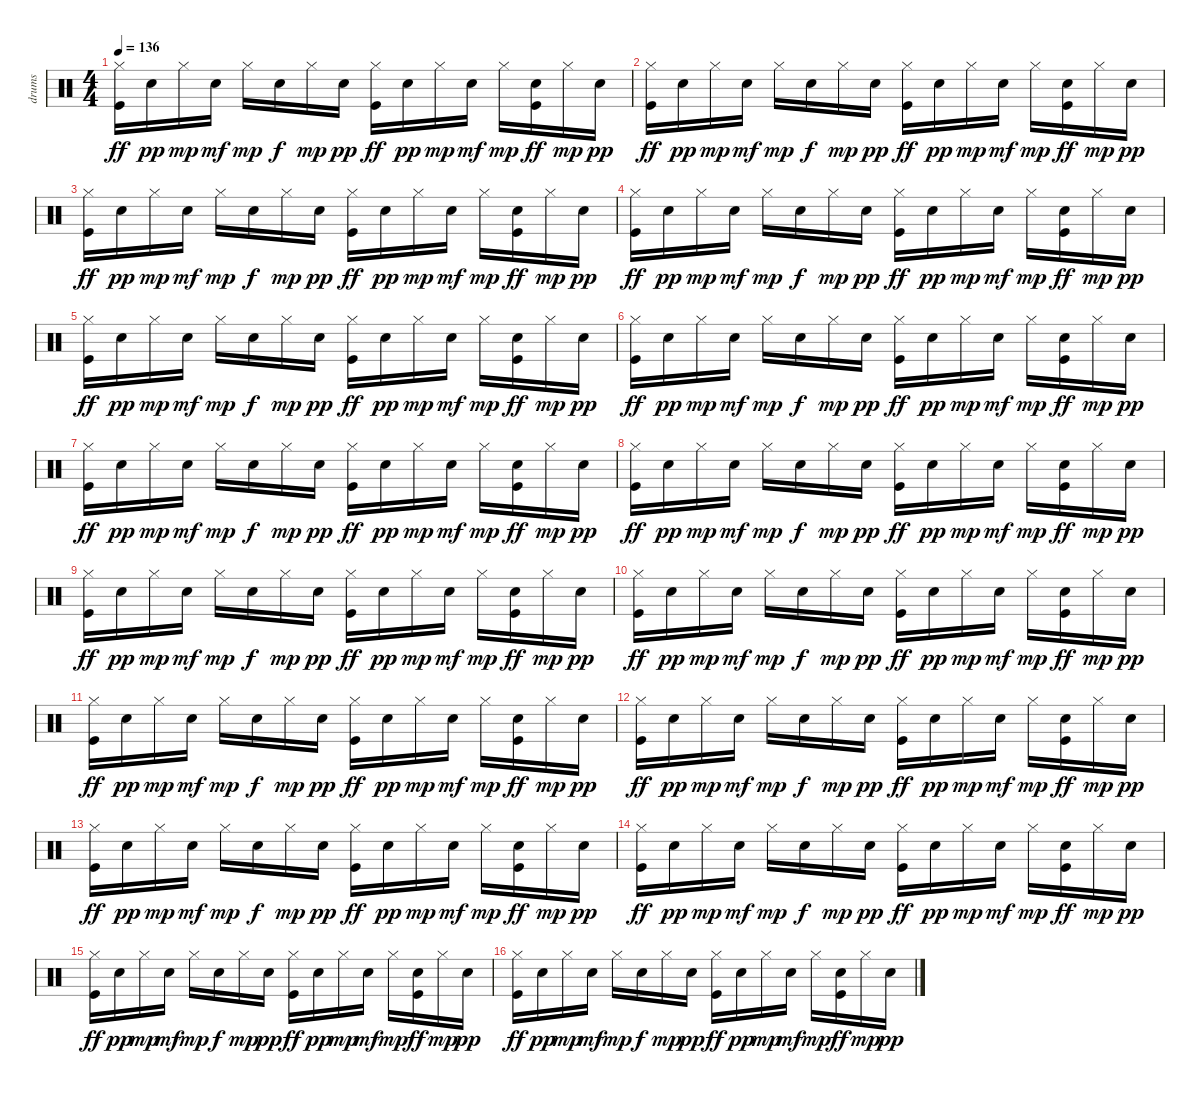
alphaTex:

\track ("drums" "drums") {instrument percussion}
\staff {score}
\articulation defaults
\ts (4 4)
\tempo 136
\clef neutral
\ks c
("Hi-Hat (closed)" "Kick (hit)").16{dy ff} "Snare (hit) 2".16{dy pp} "Hi-Hat (closed)".16{dy mp} "Snare (hit) 2".16{dy mf} "Hi-Hat (closed)".16{dy mp} "Snare (hit) 2".16{dy f} "Hi-Hat (closed)".16{dy mp} "Snare (hit) 2".16{dy pp} ("Hi-Hat (closed)" "Kick (hit)").16{dy ff} "Snare (hit) 2".16{dy pp} "Hi-Hat (closed)".16{dy mp} "Snare (hit) 2".16{dy mf} "Hi-Hat (closed)".16{dy mp} ("Snare (hit) 2" "Kick (hit)").16{dy ff} "Hi-Hat (closed)".16{dy mp} "Snare (hit) 2".16{dy pp} |
("Hi-Hat (closed)" "Kick (hit)").16{dy ff} "Snare (hit) 2".16{dy pp} "Hi-Hat (closed)".16{dy mp} "Snare (hit) 2".16{dy mf} "Hi-Hat (closed)".16{dy mp} "Snare (hit) 2".16{dy f} "Hi-Hat (closed)".16{dy mp} "Snare (hit) 2".16{dy pp} ("Hi-Hat (closed)" "Kick (hit)").16{dy ff} "Snare (hit) 2".16{dy pp} "Hi-Hat (closed)".16{dy mp} "Snare (hit) 2".16{dy mf} "Hi-Hat (closed)".16{dy mp} ("Snare (hit) 2" "Kick (hit)").16{dy ff} "Hi-Hat (closed)".16{dy mp} "Snare (hit) 2".16{dy pp} |
("Hi-Hat (closed)" "Kick (hit)").16{dy ff} "Snare (hit) 2".16{dy pp} "Hi-Hat (closed)".16{dy mp} "Snare (hit) 2".16{dy mf} "Hi-Hat (closed)".16{dy mp} "Snare (hit) 2".16{dy f} "Hi-Hat (closed)".16{dy mp} "Snare (hit) 2".16{dy pp} ("Hi-Hat (closed)" "Kick (hit)").16{dy ff} "Snare (hit) 2".16{dy pp} "Hi-Hat (closed)".16{dy mp} "Snare (hit) 2".16{dy mf} "Hi-Hat (closed)".16{dy mp} ("Snare (hit) 2" "Kick (hit)").16{dy ff} "Hi-Hat (closed)".16{dy mp} "Snare (hit) 2".16{dy pp} |
("Hi-Hat (closed)" "Kick (hit)").16{dy ff} "Snare (hit) 2".16{dy pp} "Hi-Hat (closed)".16{dy mp} "Snare (hit) 2".16{dy mf} "Hi-Hat (closed)".16{dy mp} "Snare (hit) 2".16{dy f} "Hi-Hat (closed)".16{dy mp} "Snare (hit) 2".16{dy pp} ("Hi-Hat (closed)" "Kick (hit)").16{dy ff} "Snare (hit) 2".16{dy pp} "Hi-Hat (closed)".16{dy mp} "Snare (hit) 2".16{dy mf} "Hi-Hat (closed)".16{dy mp} ("Snare (hit) 2" "Kick (hit)").16{dy ff} "Hi-Hat (closed)".16{dy mp} "Snare (hit) 2".16{dy pp} |
("Hi-Hat (closed)" "Kick (hit)").16{dy ff} "Snare (hit) 2".16{dy pp} "Hi-Hat (closed)".16{dy mp} "Snare (hit) 2".16{dy mf} "Hi-Hat (closed)".16{dy mp} "Snare (hit) 2".16{dy f} "Hi-Hat (closed)".16{dy mp} "Snare (hit) 2".16{dy pp} ("Hi-Hat (closed)" "Kick (hit)").16{dy ff} "Snare (hit) 2".16{dy pp} "Hi-Hat (closed)".16{dy mp} "Snare (hit) 2".16{dy mf} "Hi-Hat (closed)".16{dy mp} ("Snare (hit) 2" "Kick (hit)").16{dy ff} "Hi-Hat (closed)".16{dy mp} "Snare (hit) 2".16{dy pp} |
("Hi-Hat (closed)" "Kick (hit)").16{dy ff} "Snare (hit) 2".16{dy pp} "Hi-Hat (closed)".16{dy mp} "Snare (hit) 2".16{dy mf} "Hi-Hat (closed)".16{dy mp} "Snare (hit) 2".16{dy f} "Hi-Hat (closed)".16{dy mp} "Snare (hit) 2".16{dy pp} ("Hi-Hat (closed)" "Kick (hit)").16{dy ff} "Snare (hit) 2".16{dy pp} "Hi-Hat (closed)".16{dy mp} "Snare (hit) 2".16{dy mf} "Hi-Hat (closed)".16{dy mp} ("Snare (hit) 2" "Kick (hit)").16{dy ff} "Hi-Hat (closed)".16{dy mp} "Snare (hit) 2".16{dy pp} |
("Hi-Hat (closed)" "Kick (hit)").16{dy ff} "Snare (hit) 2".16{dy pp} "Hi-Hat (closed)".16{dy mp} "Snare (hit) 2".16{dy mf} "Hi-Hat (closed)".16{dy mp} "Snare (hit) 2".16{dy f} "Hi-Hat (closed)".16{dy mp} "Snare (hit) 2".16{dy pp} ("Hi-Hat (closed)" "Kick (hit)").16{dy ff} "Snare (hit) 2".16{dy pp} "Hi-Hat (closed)".16{dy mp} "Snare (hit) 2".16{dy mf} "Hi-Hat (closed)".16{dy mp} ("Snare (hit) 2" "Kick (hit)").16{dy ff} "Hi-Hat (closed)".16{dy mp} "Snare (hit) 2".16{dy pp} |
("Hi-Hat (closed)" "Kick (hit)").16{dy ff} "Snare (hit) 2".16{dy pp} "Hi-Hat (closed)".16{dy mp} "Snare (hit) 2".16{dy mf} "Hi-Hat (closed)".16{dy mp} "Snare (hit) 2".16{dy f} "Hi-Hat (closed)".16{dy mp} "Snare (hit) 2".16{dy pp} ("Hi-Hat (closed)" "Kick (hit)").16{dy ff} "Snare (hit) 2".16{dy pp} "Hi-Hat (closed)".16{dy mp} "Snare (hit) 2".16{dy mf} "Hi-Hat (closed)".16{dy mp} ("Snare (hit) 2" "Kick (hit)").16{dy ff} "Hi-Hat (closed)".16{dy mp} "Snare (hit) 2".16{dy pp} |
("Hi-Hat (closed)" "Kick (hit)").16{dy ff} "Snare (hit) 2".16{dy pp} "Hi-Hat (closed)".16{dy mp} "Snare (hit) 2".16{dy mf} "Hi-Hat (closed)".16{dy mp} "Snare (hit) 2".16{dy f} "Hi-Hat (closed)".16{dy mp} "Snare (hit) 2".16{dy pp} ("Hi-Hat (closed)" "Kick (hit)").16{dy ff} "Snare (hit) 2".16{dy pp} "Hi-Hat (closed)".16{dy mp} "Snare (hit) 2".16{dy mf} "Hi-Hat (closed)".16{dy mp} ("Snare (hit) 2" "Kick (hit)").16{dy ff} "Hi-Hat (closed)".16{dy mp} "Snare (hit) 2".16{dy pp} |
("Hi-Hat (closed)" "Kick (hit)").16{dy ff} "Snare (hit) 2".16{dy pp} "Hi-Hat (closed)".16{dy mp} "Snare (hit) 2".16{dy mf} "Hi-Hat (closed)".16{dy mp} "Snare (hit) 2".16{dy f} "Hi-Hat (closed)".16{dy mp} "Snare (hit) 2".16{dy pp} ("Hi-Hat (closed)" "Kick (hit)").16{dy ff} "Snare (hit) 2".16{dy pp} "Hi-Hat (closed)".16{dy mp} "Snare (hit) 2".16{dy mf} "Hi-Hat (closed)".16{dy mp} ("Snare (hit) 2" "Kick (hit)").16{dy ff} "Hi-Hat (closed)".16{dy mp} "Snare (hit) 2".16{dy pp} |
("Hi-Hat (closed)" "Kick (hit)").16{dy ff} "Snare (hit) 2".16{dy pp} "Hi-Hat (closed)".16{dy mp} "Snare (hit) 2".16{dy mf} "Hi-Hat (closed)".16{dy mp} "Snare (hit) 2".16{dy f} "Hi-Hat (closed)".16{dy mp} "Snare (hit) 2".16{dy pp} ("Hi-Hat (closed)" "Kick (hit)").16{dy ff} "Snare (hit) 2".16{dy pp} "Hi-Hat (closed)".16{dy mp} "Snare (hit) 2".16{dy mf} "Hi-Hat (closed)".16{dy mp} ("Snare (hit) 2" "Kick (hit)").16{dy ff} "Hi-Hat (closed)".16{dy mp} "Snare (hit) 2".16{dy pp} |
("Hi-Hat (closed)" "Kick (hit)").16{dy ff} "Snare (hit) 2".16{dy pp} "Hi-Hat (closed)".16{dy mp} "Snare (hit) 2".16{dy mf} "Hi-Hat (closed)".16{dy mp} "Snare (hit) 2".16{dy f} "Hi-Hat (closed)".16{dy mp} "Snare (hit) 2".16{dy pp} ("Hi-Hat (closed)" "Kick (hit)").16{dy ff} "Snare (hit) 2".16{dy pp} "Hi-Hat (closed)".16{dy mp} "Snare (hit) 2".16{dy mf} "Hi-Hat (closed)".16{dy mp} ("Snare (hit) 2" "Kick (hit)").16{dy ff} "Hi-Hat (closed)".16{dy mp} "Snare (hit) 2".16{dy pp} |
("Hi-Hat (closed)" "Kick (hit)").16{dy ff} "Snare (hit) 2".16{dy pp} "Hi-Hat (closed)".16{dy mp} "Snare (hit) 2".16{dy mf} "Hi-Hat (closed)".16{dy mp} "Snare (hit) 2".16{dy f} "Hi-Hat (closed)".16{dy mp} "Snare (hit) 2".16{dy pp} ("Hi-Hat (closed)" "Kick (hit)").16{dy ff} "Snare (hit) 2".16{dy pp} "Hi-Hat (closed)".16{dy mp} "Snare (hit) 2".16{dy mf} "Hi-Hat (closed)".16{dy mp} ("Snare (hit) 2" "Kick (hit)").16{dy ff} "Hi-Hat (closed)".16{dy mp} "Snare (hit) 2".16{dy pp} |
("Hi-Hat (closed)" "Kick (hit)").16{dy ff} "Snare (hit) 2".16{dy pp} "Hi-Hat (closed)".16{dy mp} "Snare (hit) 2".16{dy mf} "Hi-Hat (closed)".16{dy mp} "Snare (hit) 2".16{dy f} "Hi-Hat (closed)".16{dy mp} "Snare (hit) 2".16{dy pp} ("Hi-Hat (closed)" "Kick (hit)").16{dy ff} "Snare (hit) 2".16{dy pp} "Hi-Hat (closed)".16{dy mp} "Snare (hit) 2".16{dy mf} "Hi-Hat (closed)".16{dy mp} ("Snare (hit) 2" "Kick (hit)").16{dy ff} "Hi-Hat (closed)".16{dy mp} "Snare (hit) 2".16{dy pp} |
("Hi-Hat (closed)" "Kick (hit)").16{dy ff} "Snare (hit) 2".16{dy pp} "Hi-Hat (closed)".16{dy mp} "Snare (hit) 2".16{dy mf} "Hi-Hat (closed)".16{dy mp} "Snare (hit) 2".16{dy f} "Hi-Hat (closed)".16{dy mp} "Snare (hit) 2".16{dy pp} ("Hi-Hat (closed)" "Kick (hit)").16{dy ff} "Snare (hit) 2".16{dy pp} "Hi-Hat (closed)".16{dy mp} "Snare (hit) 2".16{dy mf} "Hi-Hat (closed)".16{dy mp} ("Snare (hit) 2" "Kick (hit)").16{dy ff} "Hi-Hat (closed)".16{dy mp} "Snare (hit) 2".16{dy pp} |
("Hi-Hat (closed)" "Kick (hit)").16{dy ff} "Snare (hit) 2".16{dy pp} "Hi-Hat (closed)".16{dy mp} "Snare (hit) 2".16{dy mf} "Hi-Hat (closed)".16{dy mp} "Snare (hit) 2".16{dy f} "Hi-Hat (closed)".16{dy mp} "Snare (hit) 2".16{dy pp} ("Hi-Hat (closed)" "Kick (hit)").16{dy ff} "Snare (hit) 2".16{dy pp} "Hi-Hat (closed)".16{dy mp} "Snare (hit) 2".16{dy mf} "Hi-Hat (closed)".16{dy mp} ("Snare (hit) 2" "Kick (hit)").16{dy ff} "Hi-Hat (closed)".16{dy mp} "Snare (hit) 2".16{dy pp}
